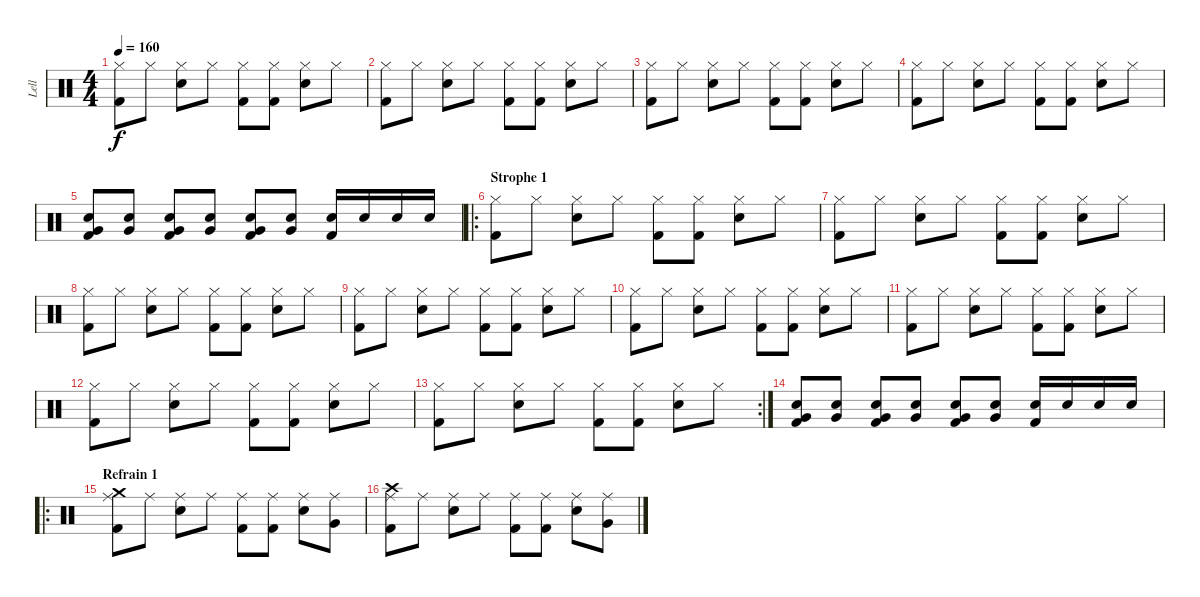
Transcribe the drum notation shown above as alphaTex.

\track ("Lell" "Lell") {instrument percussion}
\staff {score}
\articulation defaults
\ts (4 4)
\tempo 160
\clef neutral
\ks c
("Hi-Hat (closed)" "Kick (hit) 2").8{dy f} "Hi-Hat (closed)".8 ("Hi-Hat (closed)" "Snare (hit) 2").8 "Hi-Hat (closed)".8 ("Hi-Hat (closed)" "Kick (hit) 2").8 ("Hi-Hat (closed)" "Kick (hit) 2").8 ("Hi-Hat (closed)" "Snare (hit) 2").8 "Hi-Hat (closed)".8 |
("Hi-Hat (closed)" "Kick (hit) 2").8 "Hi-Hat (closed)".8 ("Hi-Hat (closed)" "Snare (hit) 2").8 "Hi-Hat (closed)".8 ("Hi-Hat (closed)" "Kick (hit) 2").8 ("Hi-Hat (closed)" "Kick (hit) 2").8 ("Hi-Hat (closed)" "Snare (hit) 2").8 "Hi-Hat (closed)".8 |
("Hi-Hat (closed)" "Kick (hit) 2").8 "Hi-Hat (closed)".8 ("Hi-Hat (closed)" "Snare (hit) 2").8 "Hi-Hat (closed)".8 ("Hi-Hat (closed)" "Kick (hit) 2").8 ("Hi-Hat (closed)" "Kick (hit) 2").8 ("Hi-Hat (closed)" "Snare (hit) 2").8 "Hi-Hat (closed)".8 |
("Hi-Hat (closed)" "Kick (hit) 2").8 "Hi-Hat (closed)".8 ("Hi-Hat (closed)" "Snare (hit) 2").8 "Hi-Hat (closed)".8 ("Hi-Hat (closed)" "Kick (hit) 2").8 ("Hi-Hat (closed)" "Kick (hit) 2").8 ("Hi-Hat (closed)" "Snare (hit) 2").8 "Hi-Hat (closed)".8 |
("Very Low Tom (hit)" "Snare (hit) 2" "Kick (hit) 2").8 ("Very Low Tom (hit)" "Snare (hit) 2").8 ("Very Low Tom (hit)" "Snare (hit) 2" "Kick (hit) 2").8 ("Very Low Tom (hit)" "Snare (hit) 2").8 ("Very Low Tom (hit)" "Snare (hit) 2" "Kick (hit) 2").8 ("Very Low Tom (hit)" "Snare (hit) 2").8 ("Snare (hit) 2" "Kick (hit) 2").16 "Snare (hit) 2".16 "Snare (hit) 2".16 "Snare (hit) 2".16 |
\ro
\section ("" "Strophe 1")
("Hi-Hat (closed)" "Kick (hit) 2").8 "Hi-Hat (closed)".8 ("Hi-Hat (closed)" "Snare (hit) 2").8 "Hi-Hat (closed)".8 ("Hi-Hat (closed)" "Kick (hit) 2").8 ("Hi-Hat (closed)" "Kick (hit) 2").8 ("Hi-Hat (closed)" "Snare (hit) 2").8 "Hi-Hat (closed)".8 |
("Hi-Hat (closed)" "Kick (hit) 2").8 "Hi-Hat (closed)".8 ("Hi-Hat (closed)" "Snare (hit) 2").8 "Hi-Hat (closed)".8 ("Hi-Hat (closed)" "Kick (hit) 2").8 ("Hi-Hat (closed)" "Kick (hit) 2").8 ("Hi-Hat (closed)" "Snare (hit) 2").8 "Hi-Hat (closed)".8 |
("Hi-Hat (closed)" "Kick (hit) 2").8 "Hi-Hat (closed)".8 ("Hi-Hat (closed)" "Snare (hit) 2").8 "Hi-Hat (closed)".8 ("Hi-Hat (closed)" "Kick (hit) 2").8 ("Hi-Hat (closed)" "Kick (hit) 2").8 ("Hi-Hat (closed)" "Snare (hit) 2").8 "Hi-Hat (closed)".8 |
("Hi-Hat (closed)" "Kick (hit) 2").8 "Hi-Hat (closed)".8 ("Hi-Hat (closed)" "Snare (hit) 2").8 "Hi-Hat (closed)".8 ("Hi-Hat (closed)" "Kick (hit) 2").8 ("Hi-Hat (closed)" "Kick (hit) 2").8 ("Hi-Hat (closed)" "Snare (hit) 2").8 "Hi-Hat (closed)".8 |
("Hi-Hat (closed)" "Kick (hit) 2").8 "Hi-Hat (closed)".8 ("Hi-Hat (closed)" "Snare (hit) 2").8 "Hi-Hat (closed)".8 ("Hi-Hat (closed)" "Kick (hit) 2").8 ("Hi-Hat (closed)" "Kick (hit) 2").8 ("Hi-Hat (closed)" "Snare (hit) 2").8 "Hi-Hat (closed)".8 |
("Hi-Hat (closed)" "Kick (hit) 2").8 "Hi-Hat (closed)".8 ("Hi-Hat (closed)" "Snare (hit) 2").8 "Hi-Hat (closed)".8 ("Hi-Hat (closed)" "Kick (hit) 2").8 ("Hi-Hat (closed)" "Kick (hit) 2").8 ("Hi-Hat (closed)" "Snare (hit) 2").8 "Hi-Hat (closed)".8 |
("Hi-Hat (closed)" "Kick (hit) 2").8 "Hi-Hat (closed)".8 ("Hi-Hat (closed)" "Snare (hit) 2").8 "Hi-Hat (closed)".8 ("Hi-Hat (closed)" "Kick (hit) 2").8 ("Hi-Hat (closed)" "Kick (hit) 2").8 ("Hi-Hat (closed)" "Snare (hit) 2").8 "Hi-Hat (closed)".8 |
\rc 2
("Hi-Hat (closed)" "Kick (hit) 2").8 "Hi-Hat (closed)".8 ("Hi-Hat (closed)" "Snare (hit) 2").8 "Hi-Hat (closed)".8 ("Hi-Hat (closed)" "Kick (hit) 2").8 ("Hi-Hat (closed)" "Kick (hit) 2").8 ("Hi-Hat (closed)" "Snare (hit) 2").8 "Hi-Hat (closed)".8 |
("Very Low Tom (hit)" "Snare (hit) 2" "Kick (hit) 2").8 ("Very Low Tom (hit)" "Snare (hit) 2").8 ("Very Low Tom (hit)" "Snare (hit) 2" "Kick (hit) 2").8 ("Very Low Tom (hit)" "Snare (hit) 2").8 ("Very Low Tom (hit)" "Snare (hit) 2" "Kick (hit) 2").8 ("Very Low Tom (hit)" "Snare (hit) 2").8 ("Snare (hit) 2" "Kick (hit) 2").16 "Snare (hit) 2".16 "Snare (hit) 2".16 "Snare (hit) 2".16 |
\ro
\section ("" "Refrain 1")
("Crash medium (hit)" "Ride (middle)" "Kick (hit) 2").8 "Ride (middle)".8 ("Ride (middle)" "Snare (hit) 2").8 "Ride (middle)".8 ("Ride (middle)" "Kick (hit) 2").8 ("Ride (middle)" "Kick (hit) 2").8 ("Ride (middle)" "Snare (hit) 2").8 ("Ride (middle)" "Very Low Tom (hit)").8 |
("Crash high (hit)" "Ride (middle)" "Kick (hit) 2").8 "Ride (middle)".8 ("Ride (middle)" "Snare (hit) 2").8 "Ride (middle)".8 ("Ride (middle)" "Kick (hit) 2").8 ("Ride (middle)" "Kick (hit) 2").8 ("Ride (middle)" "Snare (hit) 2").8 ("Ride (middle)" "Very Low Tom (hit)").8
